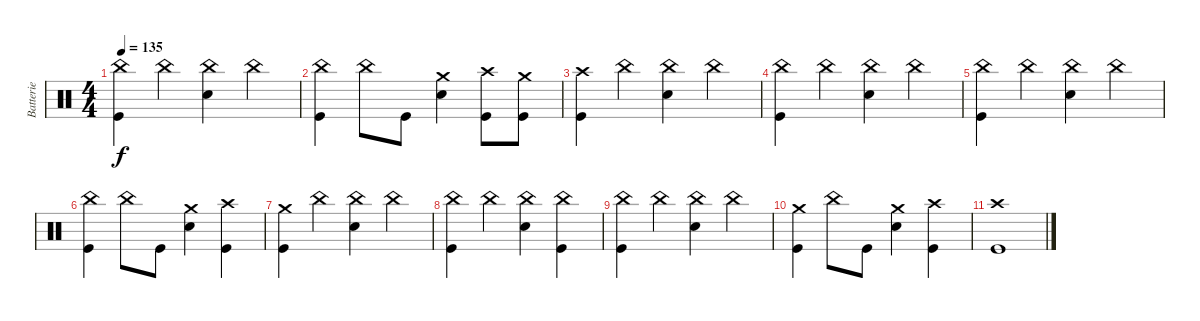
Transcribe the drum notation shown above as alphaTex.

\track ("Batterie" "Batterie") {instrument percussion}
\staff {score}
\articulation defaults
\ts (4 4)
\tempo 135
\clef neutral
\ks c
("China (hit)" "Kick (hit)").4{dy f} "China (hit)".4 ("China (hit)" "Electric Snare (hit)").4 "China (hit)".4 |
("China (hit)" "Kick (hit)").4 "China (hit)".8 "Kick (hit)".8 ("Crash medium (hit)" "Electric Snare (hit)").4 ("Crash high (hit)" "Kick (hit)").8 ("Crash medium (hit)" "Kick (hit)").8 |
("Crash high (hit)" "Kick (hit)").4 "China (hit)".4 ("China (hit)" "Electric Snare (hit)").4 "China (hit)".4 |
("China (hit)" "Kick (hit)").4 "China (hit)".4 ("China (hit)" "Electric Snare (hit)").4 "China (hit)".4 |
("China (hit)" "Kick (hit)").4 "China (hit)".4 ("China (hit)" "Electric Snare (hit)").4 "China (hit)".4 |
("China (hit)" "Kick (hit)").4 "China (hit)".8 "Kick (hit)".8 ("Crash medium (hit)" "Electric Snare (hit)").4 ("Crash high (hit)" "Kick (hit)").4 |
("Crash medium (hit)" "Kick (hit)").4 "China (hit)".4 ("China (hit)" "Electric Snare (hit)").4 "China (hit)".4 |
("China (hit)" "Kick (hit)").4 "China (hit)".4 ("China (hit)" "Electric Snare (hit)").4 ("China (hit)" "Kick (hit)").4 |
("China (hit)" "Kick (hit)").4 "China (hit)".4 ("China (hit)" "Electric Snare (hit)").4 "China (hit)".4 |
("Crash medium (hit)" "Kick (hit)").4 "China (hit)".8 "Kick (hit)".8 ("Crash medium (hit)" "Electric Snare (hit)").4 ("Crash high (hit)" "Kick (hit)").4 |
("Crash high (hit)" "Kick (hit)").1
